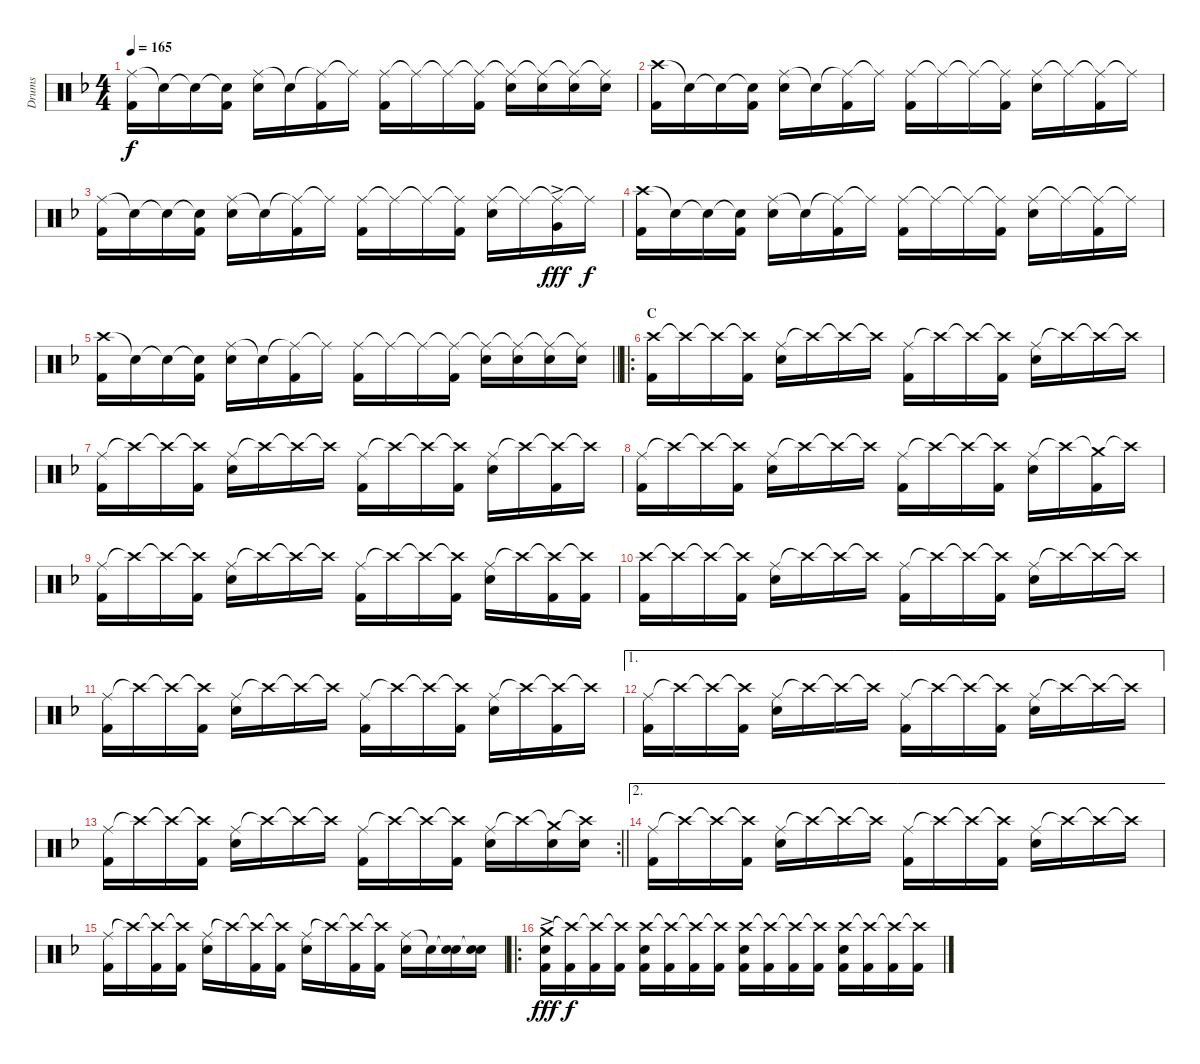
\track ("Drums" "Drums") {instrument percussion}
\staff {score}
\articulation defaults
\ts (4 4)
\tempo 165
\clef neutral
\ks f
("Ride (middle)" "Kick (hit) 2").16{dy f} "Snare (hit)"{t}.16 "Snare (hit)"{t}.16 ("Snare (hit)"{t} "Kick (hit) 2").16 ("Ride (middle)" "Snare (hit) 2").16 "Snare (hit)"{t}.16 ("Ride (middle)"{t} "Kick (hit) 2").16 "Ride (middle)"{t}.16 ("Ride (middle)" "Kick (hit) 2").16 "Ride (middle)"{t}.16 "Ride (middle)"{t}.16 ("Ride (middle)"{t} "Kick (hit) 2").16 ("Ride (middle)"{t} "Snare (hit) 2").16 ("Ride (middle)"{t} "Snare (hit) 2").16 ("Ride (middle)"{t} "Snare (hit) 2").16 ("Ride (middle)"{t} "Snare (hit) 2").16 |
("Crash high (hit)" "Kick (hit) 2").16 "Snare (hit)"{t}.16 "Snare (hit)"{t}.16 ("Snare (hit)"{t} "Kick (hit) 2").16 ("Ride (middle)" "Snare (hit) 2").16 "Snare (hit)"{t}.16 ("Ride (middle)"{t} "Kick (hit) 2").16 "Ride (middle)"{t}.16 ("Ride (middle)" "Kick (hit) 2").16 "Ride (middle)"{t}.16 "Ride (middle)"{t}.16 ("Ride (middle)"{t} "Kick (hit) 2").16 ("Ride (middle)" "Snare (hit) 2").16 "Ride (middle)"{t}.16 ("Ride (middle)"{t} "Kick (hit) 2").16 "Ride (middle)"{t}.16 |
("Ride (middle)" "Kick (hit) 2").16 "Snare (hit)"{t}.16 "Snare (hit)"{t}.16 ("Snare (hit)"{t} "Kick (hit) 2").16 ("Ride (middle)" "Snare (hit) 2").16 "Snare (hit)"{t}.16 ("Ride (middle)"{t} "Kick (hit) 2").16 "Ride (middle)"{t}.16 ("Ride (middle)" "Kick (hit) 2").16 "Ride (middle)"{t}.16 "Ride (middle)"{t}.16 ("Ride (middle)"{t} "Kick (hit) 2").16 ("Ride (middle)" "Snare (hit) 2").16 "Ride (middle)"{t}.16 ("Ride (middle)"{t} "Very Low Tom (hit)"{ac}).16{dy fff} "Ride (middle)"{t}.16{dy f} |
("Crash high (hit)" "Kick (hit) 2").16 "Snare (hit)"{t}.16 "Snare (hit)"{t}.16 ("Snare (hit)"{t} "Kick (hit) 2").16 ("Ride (middle)" "Snare (hit) 2").16 "Snare (hit)"{t}.16 ("Ride (middle)"{t} "Kick (hit) 2").16 "Ride (middle)"{t}.16 ("Ride (middle)" "Kick (hit) 2").16 "Ride (middle)"{t}.16 "Ride (middle)"{t}.16 ("Ride (middle)"{t} "Kick (hit) 2").16 ("Ride (middle)" "Snare (hit) 2").16 "Ride (middle)"{t}.16 ("Ride (middle)"{t} "Kick (hit) 2").16 "Ride (middle)"{t}.16 |
\barLineRight lightlight
("Crash high (hit)" "Kick (hit) 2").16 "Snare (hit)"{t}.16 "Snare (hit)"{t}.16 ("Snare (hit)"{t} "Kick (hit) 2").16 ("Ride (middle)" "Snare (hit) 2").16 "Snare (hit)"{t}.16 ("Ride (middle)"{t} "Kick (hit) 2").16 "Ride (middle)"{t}.16 ("Ride (middle)" "Kick (hit) 2").16 "Ride (middle)"{t}.16 "Ride (middle)"{t}.16 ("Ride (middle)"{t} "Kick (hit) 2").16 ("Ride (middle)"{t} "Snare (hit) 2").16 ("Ride (middle)"{t} "Snare (hit) 2").16 ("Ride (middle)"{t} "Snare (hit) 2").16 ("Ride (middle)"{t} "Snare (hit) 2").16 |
\ro
\section ("" "C")
("Crash high (hit)" "Kick (hit) 2").16 "Crash high (hit)"{t}.16 "Crash high (hit)"{t}.16 ("Crash high (hit)"{t} "Kick (hit) 2").16 ("Ride (middle)" "Snare (hit) 2").16 "Crash high (hit)"{t}.16 "Crash high (hit)"{t}.16 "Crash high (hit)"{t}.16 ("Ride (middle)" "Kick (hit) 2").16 "Crash high (hit)"{t}.16 "Crash high (hit)"{t}.16 ("Crash high (hit)"{t} "Kick (hit) 2").16 ("Ride (middle)" "Snare (hit) 2").16 "Crash high (hit)"{t}.16 "Crash high (hit)"{t}.16 "Crash high (hit)"{t}.16 |
("Ride (middle)" "Kick (hit) 2").16 "Crash high (hit)"{t}.16 "Crash high (hit)"{t}.16 ("Crash high (hit)"{t} "Kick (hit) 2").16 ("Ride (middle)" "Snare (hit) 2").16 "Crash high (hit)"{t}.16 "Crash high (hit)"{t}.16 "Crash high (hit)"{t}.16 ("Ride (middle)" "Kick (hit) 2").16 "Crash high (hit)"{t}.16 "Crash high (hit)"{t}.16 ("Crash high (hit)"{t} "Kick (hit) 2").16 ("Ride (middle)" "Snare (hit) 2").16 "Crash high (hit)"{t}.16 ("Crash high (hit)"{t} "Kick (hit) 2").16 "Crash high (hit)"{t}.16 |
("Ride (middle)" "Kick (hit) 2").16 "Crash high (hit)"{t}.16 "Crash high (hit)"{t}.16 ("Crash high (hit)"{t} "Kick (hit) 2").16 ("Ride (middle)" "Snare (hit) 2").16 "Crash high (hit)"{t}.16 "Crash high (hit)"{t}.16 "Crash high (hit)"{t}.16 ("Ride (middle)" "Kick (hit) 2").16 "Crash high (hit)"{t}.16 "Crash high (hit)"{t}.16 ("Crash high (hit)"{t} "Kick (hit) 2").16 ("Ride (middle)" "Snare (hit) 2").16 "Crash high (hit)"{t}.16 ("Crash medium (hit)"{t} "Kick (hit) 2").16 "Crash high (hit)"{t}.16 |
("Ride (middle)" "Kick (hit) 2").16 "Crash high (hit)"{t}.16 "Crash high (hit)"{t}.16 ("Crash high (hit)"{t} "Kick (hit) 2").16 ("Ride (middle)" "Snare (hit) 2").16 "Crash high (hit)"{t}.16 "Crash high (hit)"{t}.16 "Crash high (hit)"{t}.16 ("Ride (middle)" "Kick (hit) 2").16 "Crash high (hit)"{t}.16 "Crash high (hit)"{t}.16 ("Crash high (hit)"{t} "Kick (hit) 2").16 ("Ride (middle)" "Snare (hit) 2").16 "Crash high (hit)"{t}.16 ("Crash high (hit)"{t} "Kick (hit) 2").16 ("Crash high (hit)"{t} "Kick (hit) 2").16 |
("Crash high (hit)" "Kick (hit) 2").16 "Crash high (hit)"{t}.16 "Crash high (hit)"{t}.16 ("Crash high (hit)"{t} "Kick (hit) 2").16 ("Ride (middle)" "Snare (hit) 2").16 "Crash high (hit)"{t}.16 "Crash high (hit)"{t}.16 "Crash high (hit)"{t}.16 ("Ride (middle)" "Kick (hit) 2").16 "Crash high (hit)"{t}.16 "Crash high (hit)"{t}.16 ("Crash high (hit)"{t} "Kick (hit) 2").16 ("Ride (middle)" "Snare (hit) 2").16 "Crash high (hit)"{t}.16 "Crash high (hit)"{t}.16 "Crash high (hit)"{t}.16 |
("Ride (middle)" "Kick (hit) 2").16 "Crash high (hit)"{t}.16 "Crash high (hit)"{t}.16 ("Crash high (hit)"{t} "Kick (hit) 2").16 ("Ride (middle)" "Snare (hit) 2").16 "Crash high (hit)"{t}.16 "Crash high (hit)"{t}.16 "Crash high (hit)"{t}.16 ("Ride (middle)" "Kick (hit) 2").16 "Crash high (hit)"{t}.16 "Crash high (hit)"{t}.16 ("Crash high (hit)"{t} "Kick (hit) 2").16 ("Ride (middle)" "Snare (hit) 2").16 "Crash high (hit)"{t}.16 ("Crash high (hit)"{t} "Kick (hit) 2").16 "Crash high (hit)"{t}.16 |
\ae 1
("Ride (middle)" "Kick (hit) 2").16 "Crash high (hit)"{t}.16 "Crash high (hit)"{t}.16 ("Crash high (hit)"{t} "Kick (hit) 2").16 ("Ride (middle)" "Snare (hit) 2").16 "Crash high (hit)"{t}.16 "Crash high (hit)"{t}.16 "Crash high (hit)"{t}.16 ("Ride (middle)" "Kick (hit) 2").16 "Crash high (hit)"{t}.16 "Crash high (hit)"{t}.16 ("Crash high (hit)"{t} "Kick (hit) 2").16 ("Ride (middle)" "Snare (hit) 2").16 "Crash high (hit)"{t}.16 "Crash high (hit)"{t}.16 "Crash high (hit)"{t}.16 |
\rc 2
\barLineRight lightlight
("Ride (middle)" "Kick (hit) 2").16 "Crash high (hit)"{t}.16 "Crash high (hit)"{t}.16 ("Crash high (hit)"{t} "Kick (hit) 2").16 ("Ride (middle)" "Snare (hit) 2").16 "Crash high (hit)"{t}.16 "Crash high (hit)"{t}.16 "Crash high (hit)"{t}.16 ("Ride (middle)" "Kick (hit) 2").16 "Crash high (hit)"{t}.16 "Crash high (hit)"{t}.16 ("Crash high (hit)"{t} "Kick (hit) 2").16 ("Ride (middle)" "Snare (hit) 2").16 "Crash high (hit)"{t}.16 ("Crash medium (hit)"{t} "Snare (hit) 2").16 ("Crash high (hit)"{t} "Snare (hit) 2").16 |
\ae 2
("Ride (middle)" "Kick (hit) 2").16 "Crash high (hit)"{t}.16 "Crash high (hit)"{t}.16 ("Crash high (hit)"{t} "Kick (hit) 2").16 ("Ride (middle)" "Snare (hit) 2").16 "Crash high (hit)"{t}.16 "Crash high (hit)"{t}.16 "Crash high (hit)"{t}.16 ("Ride (middle)" "Kick (hit) 2").16 "Crash high (hit)"{t}.16 "Crash high (hit)"{t}.16 ("Crash high (hit)"{t} "Kick (hit) 2").16 ("Ride (middle)" "Snare (hit) 2").16 "Crash high (hit)"{t}.16 "Crash high (hit)"{t}.16 "Crash high (hit)"{t}.16 |
("Ride (middle)" "Kick (hit) 2").16 "Crash high (hit)"{t}.16 ("Crash high (hit)"{t} "Kick (hit) 2").16 ("Crash high (hit)"{t} "Kick (hit) 2").16 ("Ride (middle)" "Snare (hit) 2").16 "Crash high (hit)"{t}.16 ("Crash high (hit)"{t} "Kick (hit) 2").16 ("Crash high (hit)"{t} "Kick (hit) 2").16 ("Ride (middle)" "Snare (hit) 2").16 "Crash high (hit)"{t}.16 ("Crash high (hit)"{t} "Kick (hit) 2").16 ("Crash high (hit)"{t} "Kick (hit) 2").16 ("Ride (middle)" "Snare (hit) 2").16 "Snare (hit)"{t}.16 ("Snare (hit)"{t} "Snare (hit) 2").16 ("Snare (hit)"{t} "Snare (hit) 2").16 |
\ro
\section ("" "")
("Crash medium (hit)"{ac} "Snare (hit) 2" "Kick (hit) 2").16{dy fff} ("Crash high (hit)"{t} "Kick (hit) 2").16{dy f} ("Crash high (hit)"{t} "Kick (hit) 2").16 ("Crash high (hit)"{t} "Kick (hit) 2").16 ("Crash high (hit)" "Snare (hit) 2" "Kick (hit) 2").16 ("Crash high (hit)"{t} "Kick (hit) 2").16 ("Crash high (hit)"{t} "Kick (hit) 2").16 ("Crash high (hit)"{t} "Kick (hit) 2").16 ("Crash high (hit)" "Snare (hit) 2" "Kick (hit) 2").16 ("Crash high (hit)"{t} "Kick (hit) 2").16 ("Crash high (hit)"{t} "Kick (hit) 2").16 ("Crash high (hit)"{t} "Kick (hit) 2").16 ("Crash high (hit)" "Snare (hit) 2" "Kick (hit) 2").16 ("Crash high (hit)"{t} "Kick (hit) 2").16 ("Crash high (hit)"{t} "Kick (hit) 2").16 ("Crash high (hit)"{t} "Kick (hit) 2").16
